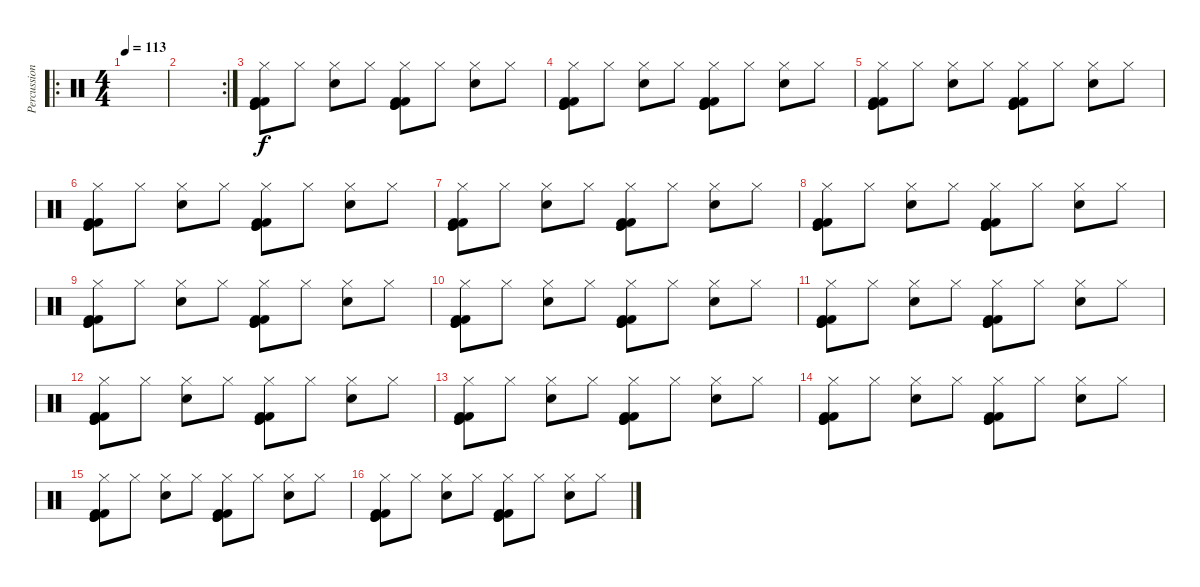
\track ("Percussions" "Percussion") {instrument percussion}
\staff {score}
\articulation defaults
\ro
\ts (4 4)
\tempo 113
\clef neutral
\ks c
|
\rc 2
|
("Kick (hit)" "Hi-Hat (closed)" "Kick (hit) 2" "Kick (hit)" "Kick (hit) 2").8 "Hi-Hat (closed)".8 ("Hi-Hat (closed)" "Electric Snare (hit)").8 "Hi-Hat (closed)".8 ("Kick (hit)" "Hi-Hat (closed)" "Kick (hit) 2" "Kick (hit)" "Kick (hit) 2").8 "Hi-Hat (closed)".8 ("Hi-Hat (closed)" "Electric Snare (hit)").8 "Hi-Hat (closed)".8 |
("Kick (hit)" "Hi-Hat (closed)" "Kick (hit) 2" "Kick (hit)" "Kick (hit) 2").8 "Hi-Hat (closed)".8 ("Hi-Hat (closed)" "Electric Snare (hit)").8 "Hi-Hat (closed)".8 ("Kick (hit)" "Hi-Hat (closed)" "Kick (hit) 2" "Kick (hit)" "Kick (hit) 2").8 "Hi-Hat (closed)".8 ("Hi-Hat (closed)" "Electric Snare (hit)").8 "Hi-Hat (closed)".8 |
("Kick (hit)" "Hi-Hat (closed)" "Kick (hit) 2" "Kick (hit)" "Kick (hit) 2").8 "Hi-Hat (closed)".8 ("Hi-Hat (closed)" "Electric Snare (hit)").8 "Hi-Hat (closed)".8 ("Kick (hit)" "Hi-Hat (closed)" "Kick (hit) 2" "Kick (hit)" "Kick (hit) 2").8 "Hi-Hat (closed)".8 ("Hi-Hat (closed)" "Electric Snare (hit)").8 "Hi-Hat (closed)".8 |
("Kick (hit)" "Hi-Hat (closed)" "Kick (hit) 2" "Kick (hit)" "Kick (hit) 2").8 "Hi-Hat (closed)".8 ("Hi-Hat (closed)" "Electric Snare (hit)").8 "Hi-Hat (closed)".8 ("Kick (hit)" "Hi-Hat (closed)" "Kick (hit) 2" "Kick (hit)" "Kick (hit) 2").8 "Hi-Hat (closed)".8 ("Hi-Hat (closed)" "Electric Snare (hit)").8 "Hi-Hat (closed)".8 |
("Kick (hit)" "Hi-Hat (closed)" "Kick (hit) 2" "Kick (hit)" "Kick (hit) 2").8 "Hi-Hat (closed)".8 ("Hi-Hat (closed)" "Electric Snare (hit)").8 "Hi-Hat (closed)".8 ("Kick (hit)" "Hi-Hat (closed)" "Kick (hit) 2" "Kick (hit)" "Kick (hit) 2").8 "Hi-Hat (closed)".8 ("Hi-Hat (closed)" "Electric Snare (hit)").8 "Hi-Hat (closed)".8 |
("Kick (hit)" "Hi-Hat (closed)" "Kick (hit) 2" "Kick (hit)" "Kick (hit) 2").8 "Hi-Hat (closed)".8 ("Hi-Hat (closed)" "Electric Snare (hit)").8 "Hi-Hat (closed)".8 ("Kick (hit)" "Hi-Hat (closed)" "Kick (hit) 2" "Kick (hit)" "Kick (hit) 2").8 "Hi-Hat (closed)".8 ("Hi-Hat (closed)" "Electric Snare (hit)").8 "Hi-Hat (closed)".8 |
("Kick (hit)" "Hi-Hat (closed)" "Kick (hit) 2" "Kick (hit)" "Kick (hit) 2").8 "Hi-Hat (closed)".8 ("Hi-Hat (closed)" "Electric Snare (hit)").8 "Hi-Hat (closed)".8 ("Kick (hit)" "Hi-Hat (closed)" "Kick (hit) 2" "Kick (hit)" "Kick (hit) 2").8 "Hi-Hat (closed)".8 ("Hi-Hat (closed)" "Electric Snare (hit)").8 "Hi-Hat (closed)".8 |
("Kick (hit)" "Hi-Hat (closed)" "Kick (hit) 2" "Kick (hit)" "Kick (hit) 2").8 "Hi-Hat (closed)".8 ("Hi-Hat (closed)" "Electric Snare (hit)").8 "Hi-Hat (closed)".8 ("Kick (hit)" "Hi-Hat (closed)" "Kick (hit) 2" "Kick (hit)" "Kick (hit) 2").8 "Hi-Hat (closed)".8 ("Hi-Hat (closed)" "Electric Snare (hit)").8 "Hi-Hat (closed)".8 |
("Kick (hit)" "Hi-Hat (closed)" "Kick (hit) 2" "Kick (hit)" "Kick (hit) 2").8 "Hi-Hat (closed)".8 ("Hi-Hat (closed)" "Electric Snare (hit)").8 "Hi-Hat (closed)".8 ("Kick (hit)" "Hi-Hat (closed)" "Kick (hit) 2" "Kick (hit)" "Kick (hit) 2").8 "Hi-Hat (closed)".8 ("Hi-Hat (closed)" "Electric Snare (hit)").8 "Hi-Hat (closed)".8 |
("Kick (hit)" "Hi-Hat (closed)" "Kick (hit) 2" "Kick (hit)" "Kick (hit) 2").8 "Hi-Hat (closed)".8 ("Hi-Hat (closed)" "Electric Snare (hit)").8 "Hi-Hat (closed)".8 ("Kick (hit)" "Hi-Hat (closed)" "Kick (hit) 2" "Kick (hit)" "Kick (hit) 2").8 "Hi-Hat (closed)".8 ("Hi-Hat (closed)" "Electric Snare (hit)").8 "Hi-Hat (closed)".8 |
("Kick (hit)" "Hi-Hat (closed)" "Kick (hit) 2" "Kick (hit)" "Kick (hit) 2").8 "Hi-Hat (closed)".8 ("Hi-Hat (closed)" "Electric Snare (hit)").8 "Hi-Hat (closed)".8 ("Kick (hit)" "Hi-Hat (closed)" "Kick (hit) 2" "Kick (hit)" "Kick (hit) 2").8 "Hi-Hat (closed)".8 ("Hi-Hat (closed)" "Electric Snare (hit)").8 "Hi-Hat (closed)".8 |
("Kick (hit)" "Hi-Hat (closed)" "Kick (hit) 2" "Kick (hit)" "Kick (hit) 2").8 "Hi-Hat (closed)".8 ("Hi-Hat (closed)" "Electric Snare (hit)").8 "Hi-Hat (closed)".8 ("Kick (hit)" "Hi-Hat (closed)" "Kick (hit) 2" "Kick (hit)" "Kick (hit) 2").8 "Hi-Hat (closed)".8 ("Hi-Hat (closed)" "Electric Snare (hit)").8 "Hi-Hat (closed)".8 |
("Kick (hit)" "Hi-Hat (closed)" "Kick (hit) 2" "Kick (hit)" "Kick (hit) 2").8 "Hi-Hat (closed)".8 ("Hi-Hat (closed)" "Electric Snare (hit)").8 "Hi-Hat (closed)".8 ("Kick (hit)" "Hi-Hat (closed)" "Kick (hit) 2" "Kick (hit)" "Kick (hit) 2").8 "Hi-Hat (closed)".8 ("Hi-Hat (closed)" "Electric Snare (hit)").8 "Hi-Hat (closed)".8 |
("Kick (hit)" "Hi-Hat (closed)" "Kick (hit) 2" "Kick (hit)" "Kick (hit) 2").8 "Hi-Hat (closed)".8 ("Hi-Hat (closed)" "Electric Snare (hit)").8 "Hi-Hat (closed)".8 ("Kick (hit)" "Hi-Hat (closed)" "Kick (hit) 2" "Kick (hit)" "Kick (hit) 2").8 "Hi-Hat (closed)".8 ("Hi-Hat (closed)" "Electric Snare (hit)").8 "Hi-Hat (closed)".8
